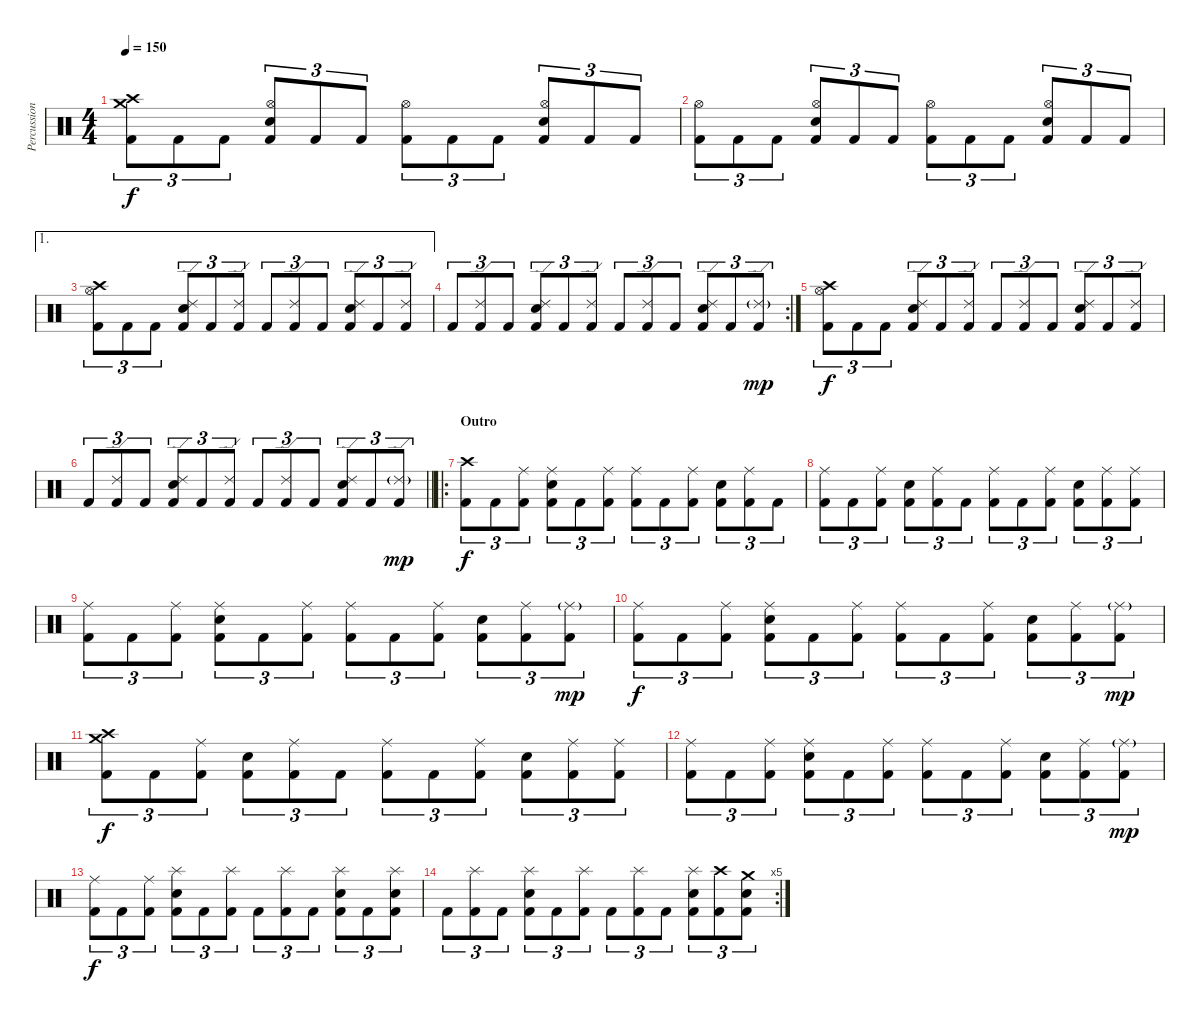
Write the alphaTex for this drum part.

\track ("Percussion" "Percussion") {instrument percussion}
\staff {score}
\articulation defaults
\ts (4 4)
\tempo 150
\clef neutral
\ks c
("Crash high (hit)" "Crash medium (hit)" "Kick (hit) 2").8{tu (3 2) dy f} "Kick (hit) 2".8{tu (3 2)} "Kick (hit) 2".8{tu (3 2)} ("Hi-Hat (open)" "Electric Snare (hit)" "Kick (hit) 2").8{tu (3 2)} "Kick (hit) 2".8{tu (3 2)} "Kick (hit) 2".8{tu (3 2)} ("Hi-Hat (open)" "Kick (hit) 2").8{tu (3 2)} "Kick (hit) 2".8{tu (3 2)} "Kick (hit) 2".8{tu (3 2)} ("Hi-Hat (open)" "Electric Snare (hit)" "Kick (hit) 2").8{tu (3 2)} "Kick (hit) 2".8{tu (3 2)} "Kick (hit) 2".8{tu (3 2)} |
("Hi-Hat (open)" "Kick (hit) 2").8{tu (3 2)} "Kick (hit) 2".8{tu (3 2)} "Kick (hit) 2".8{tu (3 2)} ("Hi-Hat (open)" "Electric Snare (hit)" "Kick (hit) 2").8{tu (3 2)} "Kick (hit) 2".8{tu (3 2)} "Kick (hit) 2".8{tu (3 2)} ("Hi-Hat (open)" "Kick (hit) 2").8{tu (3 2)} "Kick (hit) 2".8{tu (3 2)} "Kick (hit) 2".8{tu (3 2)} ("Hi-Hat (open)" "Electric Snare (hit)" "Kick (hit) 2").8{tu (3 2)} "Kick (hit) 2".8{tu (3 2)} "Kick (hit) 2".8{tu (3 2)} |
\ae 1
("Hi-Hat (open)" "Crash high (hit)" "Kick (hit) 2").8{tu (3 2)} "Kick (hit) 2".8{tu (3 2)} "Kick (hit) 2".8{tu (3 2)} ("Ride (edge) 2" "Electric Snare (hit)" "Kick (hit) 2").8{tu (3 2)} "Kick (hit) 2".8{tu (3 2)} ("Ride (edge) 2" "Kick (hit) 2").8{tu (3 2)} "Kick (hit) 2".8{tu (3 2)} ("Ride (edge) 2" "Kick (hit) 2").8{tu (3 2)} "Kick (hit) 2".8{tu (3 2)} ("Ride (edge) 2" "Electric Snare (hit)" "Kick (hit) 2").8{tu (3 2)} "Kick (hit) 2".8{tu (3 2)} ("Ride (edge) 2" "Kick (hit) 2").8{tu (3 2)} |
\rc 2 "Kick (hit) 2".8{tu (3 2)}
("Ride (edge) 2" "Kick (hit) 2").8{tu (3 2)} "Kick (hit) 2".8{tu (3 2)} ("Ride (edge) 2" "Electric Snare (hit)" "Kick (hit) 2").8{tu (3 2)} "Kick (hit) 2".8{tu (3 2)} ("Ride (edge) 2" "Kick (hit) 2").8{tu (3 2)} "Kick (hit) 2".8{tu (3 2)} ("Ride (edge) 2" "Kick (hit) 2").8{tu (3 2)} "Kick (hit) 2".8{tu (3 2)} ("Ride (edge) 2" "Electric Snare (hit)" "Kick (hit) 2").8{tu (3 2)} "Kick (hit) 2".8{tu (3 2)} ("Ride (edge) 2"{g} "Kick (hit) 2").8{tu (3 2) dy mp} |
("Hi-Hat (open)" "Crash high (hit)" "Kick (hit) 2").8{tu (3 2) dy f} "Kick (hit) 2".8{tu (3 2)} "Kick (hit) 2".8{tu (3 2)} ("Ride (edge) 2" "Electric Snare (hit)" "Kick (hit) 2").8{tu (3 2)} "Kick (hit) 2".8{tu (3 2)} ("Ride (edge) 2" "Kick (hit) 2").8{tu (3 2)} "Kick (hit) 2".8{tu (3 2)} ("Ride (edge) 2" "Kick (hit) 2").8{tu (3 2)} "Kick (hit) 2".8{tu (3 2)} ("Ride (edge) 2" "Electric Snare (hit)" "Kick (hit) 2").8{tu (3 2)} "Kick (hit) 2".8{tu (3 2)} ("Ride (edge) 2" "Kick (hit) 2").8{tu (3 2)} |
\barLineRight lightlight "Kick (hit) 2".8{tu (3 2)}
("Ride (edge) 2" "Kick (hit) 2").8{tu (3 2)} "Kick (hit) 2".8{tu (3 2)} ("Ride (edge) 2" "Electric Snare (hit)" "Kick (hit) 2").8{tu (3 2)} "Kick (hit) 2".8{tu (3 2)} ("Ride (edge) 2" "Kick (hit) 2").8{tu (3 2)} "Kick (hit) 2".8{tu (3 2)} ("Ride (edge) 2" "Kick (hit) 2").8{tu (3 2)} "Kick (hit) 2".8{tu (3 2)} ("Ride (edge) 2" "Electric Snare (hit)" "Kick (hit) 2").8{tu (3 2)} "Kick (hit) 2".8{tu (3 2)} ("Ride (edge) 2"{g} "Kick (hit) 2").8{tu (3 2) dy mp} |
\ro
\section ("" "Outro")
("Crash high (hit)" "Kick (hit) 2").8{tu (3 2) dy f} "Kick (hit) 2".8{tu (3 2)} ("Ride (middle)" "Kick (hit) 2").8{tu (3 2)} ("Ride (middle)" "Electric Snare (hit)" "Kick (hit) 2").8{tu (3 2)} "Kick (hit) 2".8{tu (3 2)} ("Ride (middle)" "Kick (hit) 2").8{tu (3 2)} ("Ride (middle)" "Kick (hit) 2").8{tu (3 2)} "Kick (hit) 2".8{tu (3 2)} ("Ride (middle)" "Kick (hit) 2").8{tu (3 2)} ("Electric Snare (hit)" "Kick (hit) 2").8{tu (3 2)} ("Ride (middle)" "Kick (hit) 2").8{tu (3 2)} "Kick (hit) 2".8{tu (3 2)} |
("Ride (middle)" "Kick (hit) 2").8{tu (3 2)} "Kick (hit) 2".8{tu (3 2)} ("Ride (middle)" "Kick (hit) 2").8{tu (3 2)} ("Electric Snare (hit)" "Kick (hit) 2").8{tu (3 2)} ("Ride (middle)" "Kick (hit) 2").8{tu (3 2)} "Kick (hit) 2".8{tu (3 2)} ("Ride (middle)" "Kick (hit) 2").8{tu (3 2)} "Kick (hit) 2".8{tu (3 2)} ("Ride (middle)" "Kick (hit) 2").8{tu (3 2)} ("Electric Snare (hit)" "Kick (hit) 2").8{tu (3 2)} ("Ride (middle)" "Kick (hit) 2").8{tu (3 2)} ("Ride (middle)" "Kick (hit) 2").8{tu (3 2)} |
("Ride (middle)" "Kick (hit) 2").8{tu (3 2)} "Kick (hit) 2".8{tu (3 2)} ("Ride (middle)" "Kick (hit) 2").8{tu (3 2)} ("Ride (middle)" "Electric Snare (hit)" "Kick (hit) 2").8{tu (3 2)} "Kick (hit) 2".8{tu (3 2)} ("Ride (middle)" "Kick (hit) 2").8{tu (3 2)} ("Ride (middle)" "Kick (hit) 2").8{tu (3 2)} "Kick (hit) 2".8{tu (3 2)} ("Ride (middle)" "Kick (hit) 2").8{tu (3 2)} ("Electric Snare (hit)" "Kick (hit) 2").8{tu (3 2)} ("Ride (middle)" "Kick (hit) 2").8{tu (3 2)} ("Ride (middle)"{g} "Kick (hit) 2").8{tu (3 2) dy mp} |
("Ride (middle)" "Kick (hit) 2").8{tu (3 2) dy f} "Kick (hit) 2".8{tu (3 2)} ("Ride (middle)" "Kick (hit) 2").8{tu (3 2)} ("Ride (middle)" "Electric Snare (hit)" "Kick (hit) 2").8{tu (3 2)} "Kick (hit) 2".8{tu (3 2)} ("Ride (middle)" "Kick (hit) 2").8{tu (3 2)} ("Ride (middle)" "Kick (hit) 2").8{tu (3 2)} "Kick (hit) 2".8{tu (3 2)} ("Ride (middle)" "Kick (hit) 2").8{tu (3 2)} ("Electric Snare (hit)" "Kick (hit) 2").8{tu (3 2)} ("Ride (middle)" "Kick (hit) 2").8{tu (3 2)} ("Ride (middle)"{g} "Kick (hit) 2").8{tu (3 2) dy mp} |
("Crash high (hit)" "Crash medium (hit)" "Kick (hit) 2").8{tu (3 2) dy f} "Kick (hit) 2".8{tu (3 2)} ("Ride (middle)" "Kick (hit) 2").8{tu (3 2)} ("Electric Snare (hit)" "Kick (hit) 2").8{tu (3 2)} ("Ride (middle)" "Kick (hit) 2").8{tu (3 2)} "Kick (hit) 2".8{tu (3 2)} ("Ride (middle)" "Kick (hit) 2").8{tu (3 2)} "Kick (hit) 2".8{tu (3 2)} ("Ride (middle)" "Kick (hit) 2").8{tu (3 2)} ("Electric Snare (hit)" "Kick (hit) 2").8{tu (3 2)} ("Ride (middle)" "Kick (hit) 2").8{tu (3 2)} ("Ride (middle)" "Kick (hit) 2").8{tu (3 2)} |
("Ride (middle)" "Kick (hit) 2").8{tu (3 2)} "Kick (hit) 2".8{tu (3 2)} ("Ride (middle)" "Kick (hit) 2").8{tu (3 2)} ("Ride (middle)" "Electric Snare (hit)" "Kick (hit) 2").8{tu (3 2)} "Kick (hit) 2".8{tu (3 2)} ("Ride (middle)" "Kick (hit) 2").8{tu (3 2)} ("Ride (middle)" "Kick (hit) 2").8{tu (3 2)} "Kick (hit) 2".8{tu (3 2)} ("Ride (middle)" "Kick (hit) 2").8{tu (3 2)} ("Electric Snare (hit)" "Kick (hit) 2").8{tu (3 2)} ("Ride (middle)" "Kick (hit) 2").8{tu (3 2)} ("Ride (middle)"{g} "Kick (hit) 2").8{tu (3 2) dy mp} |
("Ride (middle)" "Kick (hit) 2").8{tu (3 2) dy f} "Kick (hit) 2".8{tu (3 2)} ("Ride (middle)" "Kick (hit) 2").8{tu (3 2)} ("Splash (hit)" "Electric Snare (hit)" "Kick (hit) 2").8{tu (3 2)} "Kick (hit) 2".8{tu (3 2)} ("Splash (hit)" "Kick (hit) 2").8{tu (3 2)} "Kick (hit) 2".8{tu (3 2)} ("Splash (hit)" "Kick (hit) 2").8{tu (3 2)} "Kick (hit) 2".8{tu (3 2)} ("Splash (hit)" "Electric Snare (hit)" "Kick (hit) 2").8{tu (3 2)} "Kick (hit) 2".8{tu (3 2)} ("Splash (hit)" "Electric Snare (hit)" "Kick (hit) 2").8{tu (3 2)} |
\rc 5 "Kick (hit) 2".8{tu (3 2)}
("Splash (hit)" "Kick (hit) 2").8{tu (3 2)} "Kick (hit) 2".8{tu (3 2)} ("Splash (hit)" "Electric Snare (hit)" "Kick (hit) 2").8{tu (3 2)} "Kick (hit) 2".8{tu (3 2)} ("Splash (hit)" "Kick (hit) 2").8{tu (3 2)} "Kick (hit) 2".8{tu (3 2)} ("Splash (hit)" "Kick (hit) 2").8{tu (3 2)} "Kick (hit) 2".8{tu (3 2)} ("Splash (hit)" "Electric Snare (hit)" "Kick (hit) 2").8{tu (3 2)} ("Crash high (hit)" "Kick (hit) 2").8{tu (3 2)} ("Crash medium (hit)" "Electric Snare (hit)" "Kick (hit) 2").8{tu (3 2)}
